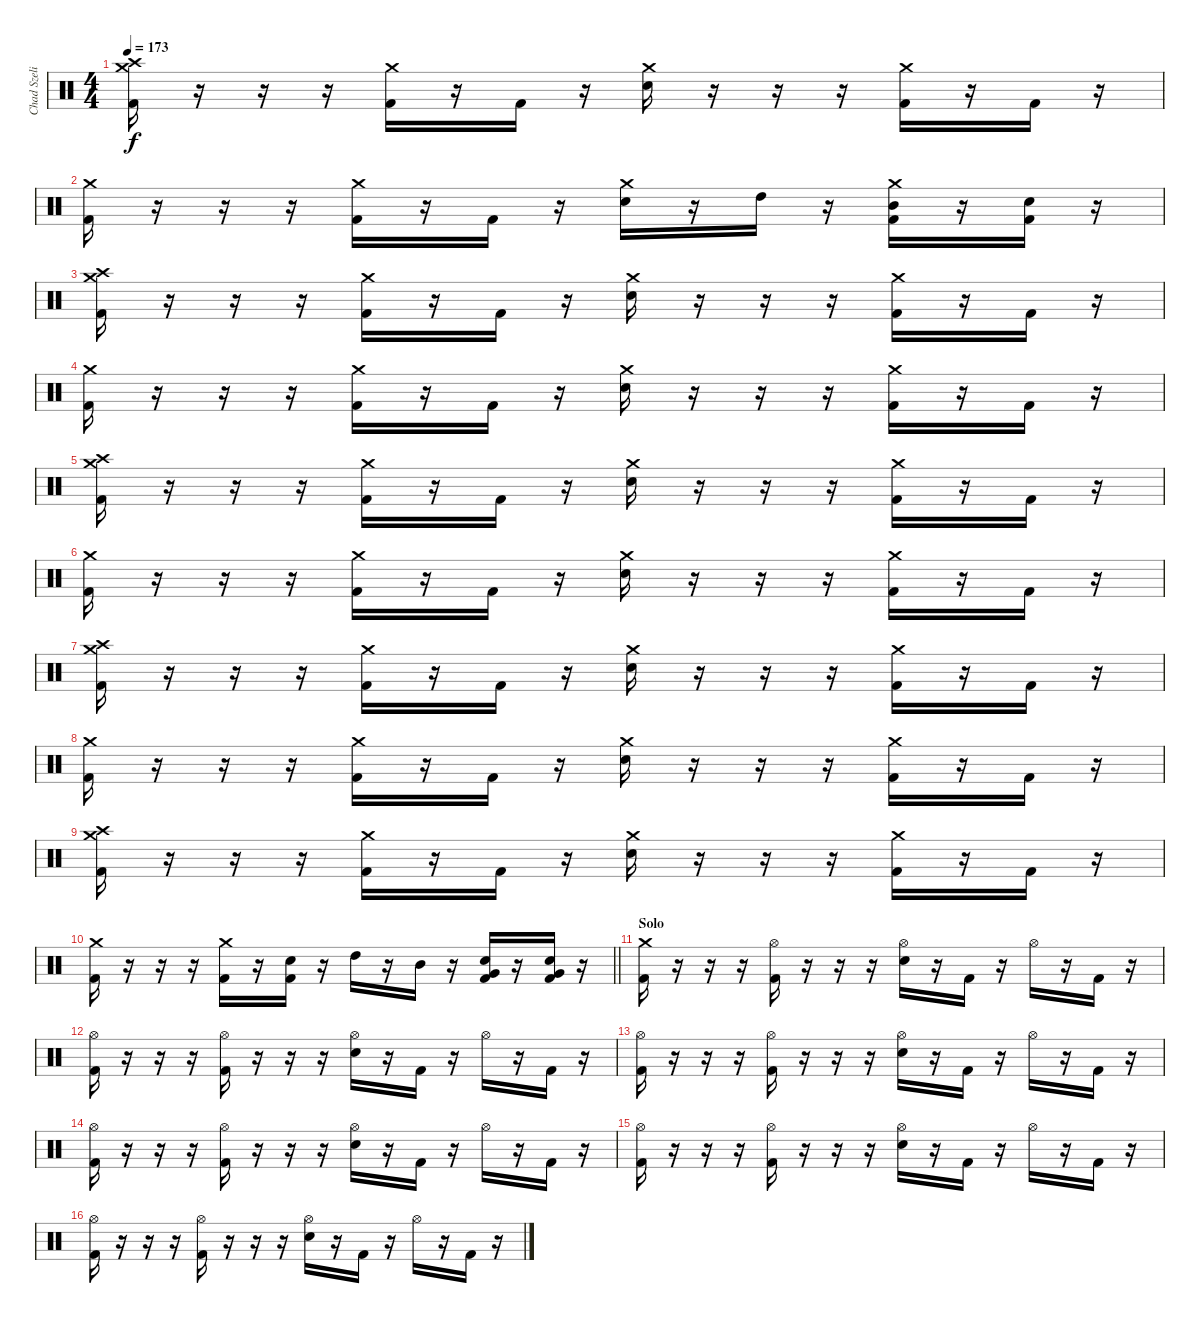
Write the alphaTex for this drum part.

\track ("Chad Szeliga" "Chad Szeli") {instrument percussion}
\staff {score}
\articulation defaults
\ts (4 4)
\tempo 173
\clef neutral
\ks c
("Crash medium (hit)" "Crash high (hit)" "Kick (hit) 2").16{dy f} r.16 r.16 r.16 ("Crash medium (hit)" "Kick (hit) 2").16 r.16 "Kick (hit) 2".16 r.16 ("Crash medium (hit)" "Electric Snare (hit)").16 r.16 r.16 r.16 ("Crash medium (hit)" "Kick (hit) 2").16 r.16 "Kick (hit) 2".16 r.16 |
("Crash medium (hit)" "Kick (hit) 2").16 r.16 r.16 r.16 ("Crash medium (hit)" "Kick (hit) 2").16 r.16 "Kick (hit) 2".16 r.16 ("Crash medium (hit)" "Electric Snare (hit)").16 r.16 "High Tom (hit)".16 r.16 ("Crash medium (hit)" "Mid Tom (hit)" "Kick (hit) 2").16 r.16 ("Electric Snare (hit)" "Kick (hit) 2").16 r.16 |
("Crash medium (hit)" "Crash high (hit)" "Kick (hit) 2").16 r.16 r.16 r.16 ("Crash medium (hit)" "Kick (hit) 2").16 r.16 "Kick (hit) 2".16 r.16 ("Crash medium (hit)" "Electric Snare (hit)").16 r.16 r.16 r.16 ("Crash medium (hit)" "Kick (hit) 2").16 r.16 "Kick (hit) 2".16 r.16 |
("Crash medium (hit)" "Kick (hit) 2").16 r.16 r.16 r.16 ("Crash medium (hit)" "Kick (hit) 2").16 r.16 "Kick (hit) 2".16 r.16 ("Crash medium (hit)" "Electric Snare (hit)").16 r.16 r.16 r.16 ("Crash medium (hit)" "Kick (hit) 2").16 r.16 "Kick (hit) 2".16 r.16 |
("Crash medium (hit)" "Crash high (hit)" "Kick (hit) 2").16 r.16 r.16 r.16 ("Crash medium (hit)" "Kick (hit) 2").16 r.16 "Kick (hit) 2".16 r.16 ("Crash medium (hit)" "Electric Snare (hit)").16 r.16 r.16 r.16 ("Crash medium (hit)" "Kick (hit) 2").16 r.16 "Kick (hit) 2".16 r.16 |
("Crash medium (hit)" "Kick (hit) 2").16 r.16 r.16 r.16 ("Crash medium (hit)" "Kick (hit) 2").16 r.16 "Kick (hit) 2".16 r.16 ("Crash medium (hit)" "Electric Snare (hit)").16 r.16 r.16 r.16 ("Crash medium (hit)" "Kick (hit) 2").16 r.16 "Kick (hit) 2".16 r.16 |
("Crash medium (hit)" "Crash high (hit)" "Kick (hit) 2").16 r.16 r.16 r.16 ("Crash medium (hit)" "Kick (hit) 2").16 r.16 "Kick (hit) 2".16 r.16 ("Crash medium (hit)" "Electric Snare (hit)").16 r.16 r.16 r.16 ("Crash medium (hit)" "Kick (hit) 2").16 r.16 "Kick (hit) 2".16 r.16 |
("Crash medium (hit)" "Kick (hit) 2").16 r.16 r.16 r.16 ("Crash medium (hit)" "Kick (hit) 2").16 r.16 "Kick (hit) 2".16 r.16 ("Crash medium (hit)" "Electric Snare (hit)").16 r.16 r.16 r.16 ("Crash medium (hit)" "Kick (hit) 2").16 r.16 "Kick (hit) 2".16 r.16 |
("Crash medium (hit)" "Crash high (hit)" "Kick (hit) 2").16 r.16 r.16 r.16 ("Crash medium (hit)" "Kick (hit) 2").16 r.16 "Kick (hit) 2".16 r.16 ("Crash medium (hit)" "Electric Snare (hit)").16 r.16 r.16 r.16 ("Crash medium (hit)" "Kick (hit) 2").16 r.16 "Kick (hit) 2".16 r.16 |
\barLineRight lightlight
("Crash medium (hit)" "Kick (hit) 2").16 r.16 r.16 r.16 ("Crash medium (hit)" "Kick (hit) 2").16 r.16 ("Electric Snare (hit)" "Kick (hit) 2").16 r.16 "High Tom (hit)".16 r.16 "Mid Tom (hit)".16 r.16 ("Electric Snare (hit)" "Very Low Tom (hit)" "Kick (hit) 2").16 r.16 ("Electric Snare (hit)" "Very Low Tom (hit)" "Kick (hit) 2").16 r.16 |
\section ("" "Solo")
("Crash medium (hit)" "Kick (hit) 2").16 r.16 r.16 r.16 ("Hi-Hat (open)" "Kick (hit) 2").16 r.16 r.16 r.16 ("Hi-Hat (open)" "Electric Snare (hit)").16 r.16 "Kick (hit) 2".16 r.16 "Hi-Hat (open)".16 r.16 "Kick (hit) 2".16 r.16 |
("Hi-Hat (open)" "Kick (hit) 2").16 r.16 r.16 r.16 ("Hi-Hat (open)" "Kick (hit) 2").16 r.16 r.16 r.16 ("Hi-Hat (open)" "Electric Snare (hit)").16 r.16 "Kick (hit) 2".16 r.16 "Hi-Hat (open)".16 r.16 "Kick (hit) 2".16 r.16 |
("Hi-Hat (open)" "Kick (hit) 2").16 r.16 r.16 r.16 ("Hi-Hat (open)" "Kick (hit) 2").16 r.16 r.16 r.16 ("Hi-Hat (open)" "Electric Snare (hit)").16 r.16 "Kick (hit) 2".16 r.16 "Hi-Hat (open)".16 r.16 "Kick (hit) 2".16 r.16 |
("Hi-Hat (open)" "Kick (hit) 2").16 r.16 r.16 r.16 ("Hi-Hat (open)" "Kick (hit) 2").16 r.16 r.16 r.16 ("Hi-Hat (open)" "Electric Snare (hit)").16 r.16 "Kick (hit) 2".16 r.16 "Hi-Hat (open)".16 r.16 "Kick (hit) 2".16 r.16 |
("Hi-Hat (open)" "Kick (hit) 2").16 r.16 r.16 r.16 ("Hi-Hat (open)" "Kick (hit) 2").16 r.16 r.16 r.16 ("Hi-Hat (open)" "Electric Snare (hit)").16 r.16 "Kick (hit) 2".16 r.16 "Hi-Hat (open)".16 r.16 "Kick (hit) 2".16 r.16 |
("Hi-Hat (open)" "Kick (hit) 2").16 r.16 r.16 r.16 ("Hi-Hat (open)" "Kick (hit) 2").16 r.16 r.16 r.16 ("Hi-Hat (open)" "Electric Snare (hit)").16 r.16 "Kick (hit) 2".16 r.16 "Hi-Hat (open)".16 r.16 "Kick (hit) 2".16 r.16
